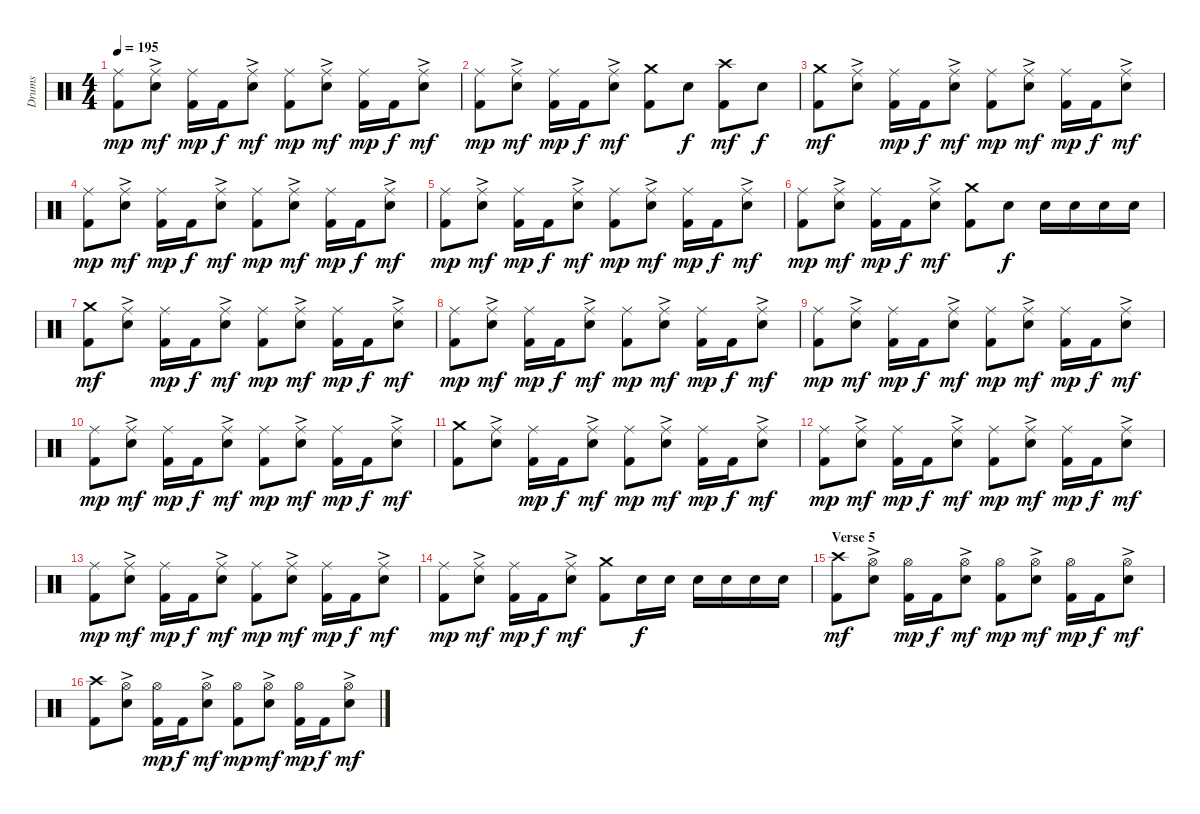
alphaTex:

\track ("Drums" "Drums") {instrument percussion}
\staff {score}
\articulation defaults
\ts (4 4)
\tempo 195
\clef neutral
\ks c
("Ride (middle)" "Kick (hit) 2").8{dy mp} ("Ride (middle)"{ac} "Electric Snare (hit)").8{dy mf} ("Ride (middle)" "Kick (hit) 2").16{dy mp} "Kick (hit) 2".16{dy f} ("Ride (middle)"{ac} "Electric Snare (hit)").8{dy mf} ("Ride (middle)" "Kick (hit) 2").8{dy mp} ("Ride (middle)"{ac} "Electric Snare (hit)").8{dy mf} ("Ride (middle)" "Kick (hit) 2").16{dy mp} "Kick (hit) 2".16{dy f} ("Ride (middle)"{ac} "Electric Snare (hit)").8{dy mf} |
("Ride (middle)" "Kick (hit) 2").8{dy mp} ("Ride (middle)"{ac} "Electric Snare (hit)").8{dy mf} ("Ride (middle)" "Kick (hit) 2").16{dy mp} "Kick (hit) 2".16{dy f} ("Ride (middle)"{ac} "Electric Snare (hit)").8{dy mf} ("Crash medium (hit)" "Kick (hit) 2").8 "Electric Snare (hit)".8{dy f} ("Crash high (hit)" "Kick (hit) 2").8{dy mf} "Electric Snare (hit)".8{dy f} |
("Crash medium (hit)" "Kick (hit) 2").8{dy mf} ("Ride (middle)"{ac} "Electric Snare (hit)").8 ("Ride (middle)" "Kick (hit) 2").16{dy mp} "Kick (hit) 2".16{dy f} ("Ride (middle)"{ac} "Electric Snare (hit)").8{dy mf} ("Ride (middle)" "Kick (hit) 2").8{dy mp} ("Ride (middle)"{ac} "Electric Snare (hit)").8{dy mf} ("Ride (middle)" "Kick (hit) 2").16{dy mp} "Kick (hit) 2".16{dy f} ("Ride (middle)"{ac} "Electric Snare (hit)").8{dy mf} |
("Ride (middle)" "Kick (hit) 2").8{dy mp} ("Ride (middle)"{ac} "Electric Snare (hit)").8{dy mf} ("Ride (middle)" "Kick (hit) 2").16{dy mp} "Kick (hit) 2".16{dy f} ("Ride (middle)"{ac} "Electric Snare (hit)").8{dy mf} ("Ride (middle)" "Kick (hit) 2").8{dy mp} ("Ride (middle)"{ac} "Electric Snare (hit)").8{dy mf} ("Ride (middle)" "Kick (hit) 2").16{dy mp} "Kick (hit) 2".16{dy f} ("Ride (middle)"{ac} "Electric Snare (hit)").8{dy mf} |
("Ride (middle)" "Kick (hit) 2").8{dy mp} ("Ride (middle)"{ac} "Electric Snare (hit)").8{dy mf} ("Ride (middle)" "Kick (hit) 2").16{dy mp} "Kick (hit) 2".16{dy f} ("Ride (middle)"{ac} "Electric Snare (hit)").8{dy mf} ("Ride (middle)" "Kick (hit) 2").8{dy mp} ("Ride (middle)"{ac} "Electric Snare (hit)").8{dy mf} ("Ride (middle)" "Kick (hit) 2").16{dy mp} "Kick (hit) 2".16{dy f} ("Ride (middle)"{ac} "Electric Snare (hit)").8{dy mf} |
("Ride (middle)" "Kick (hit) 2").8{dy mp} ("Ride (middle)"{ac} "Electric Snare (hit)").8{dy mf} ("Ride (middle)" "Kick (hit) 2").16{dy mp} "Kick (hit) 2".16{dy f} ("Ride (middle)"{ac} "Electric Snare (hit)").8{dy mf} ("Crash medium (hit)" "Kick (hit) 2").8 "Electric Snare (hit)".8{dy f} "Electric Snare (hit)".16 "Electric Snare (hit)".16 "Electric Snare (hit)".16 "Electric Snare (hit)".16 |
("Crash medium (hit)" "Kick (hit) 2").8{dy mf} ("Ride (middle)"{ac} "Electric Snare (hit)").8 ("Ride (middle)" "Kick (hit) 2").16{dy mp} "Kick (hit) 2".16{dy f} ("Ride (middle)"{ac} "Electric Snare (hit)").8{dy mf} ("Ride (middle)" "Kick (hit) 2").8{dy mp} ("Ride (middle)"{ac} "Electric Snare (hit)").8{dy mf} ("Ride (middle)" "Kick (hit) 2").16{dy mp} "Kick (hit) 2".16{dy f} ("Ride (middle)"{ac} "Electric Snare (hit)").8{dy mf} |
("Ride (middle)" "Kick (hit) 2").8{dy mp} ("Ride (middle)"{ac} "Electric Snare (hit)").8{dy mf} ("Ride (middle)" "Kick (hit) 2").16{dy mp} "Kick (hit) 2".16{dy f} ("Ride (middle)"{ac} "Electric Snare (hit)").8{dy mf} ("Ride (middle)" "Kick (hit) 2").8{dy mp} ("Ride (middle)"{ac} "Electric Snare (hit)").8{dy mf} ("Ride (middle)" "Kick (hit) 2").16{dy mp} "Kick (hit) 2".16{dy f} ("Ride (middle)"{ac} "Electric Snare (hit)").8{dy mf} |
("Ride (middle)" "Kick (hit) 2").8{dy mp} ("Ride (middle)"{ac} "Electric Snare (hit)").8{dy mf} ("Ride (middle)" "Kick (hit) 2").16{dy mp} "Kick (hit) 2".16{dy f} ("Ride (middle)"{ac} "Electric Snare (hit)").8{dy mf} ("Ride (middle)" "Kick (hit) 2").8{dy mp} ("Ride (middle)"{ac} "Electric Snare (hit)").8{dy mf} ("Ride (middle)" "Kick (hit) 2").16{dy mp} "Kick (hit) 2".16{dy f} ("Ride (middle)"{ac} "Electric Snare (hit)").8{dy mf} |
("Ride (middle)" "Kick (hit) 2").8{dy mp} ("Ride (middle)"{ac} "Electric Snare (hit)").8{dy mf} ("Ride (middle)" "Kick (hit) 2").16{dy mp} "Kick (hit) 2".16{dy f} ("Ride (middle)"{ac} "Electric Snare (hit)").8{dy mf} ("Ride (middle)" "Kick (hit) 2").8{dy mp} ("Ride (middle)"{ac} "Electric Snare (hit)").8{dy mf} ("Ride (middle)" "Kick (hit) 2").16{dy mp} "Kick (hit) 2".16{dy f} ("Ride (middle)"{ac} "Electric Snare (hit)").8{dy mf} |
("Crash medium (hit)" "Kick (hit) 2").8 ("Ride (middle)"{ac} "Electric Snare (hit)").8 ("Ride (middle)" "Kick (hit) 2").16{dy mp} "Kick (hit) 2".16{dy f} ("Ride (middle)"{ac} "Electric Snare (hit)").8{dy mf} ("Ride (middle)" "Kick (hit) 2").8{dy mp} ("Ride (middle)"{ac} "Electric Snare (hit)").8{dy mf} ("Ride (middle)" "Kick (hit) 2").16{dy mp} "Kick (hit) 2".16{dy f} ("Ride (middle)"{ac} "Electric Snare (hit)").8{dy mf} |
("Ride (middle)" "Kick (hit) 2").8{dy mp} ("Ride (middle)"{ac} "Electric Snare (hit)").8{dy mf} ("Ride (middle)" "Kick (hit) 2").16{dy mp} "Kick (hit) 2".16{dy f} ("Ride (middle)"{ac} "Electric Snare (hit)").8{dy mf} ("Ride (middle)" "Kick (hit) 2").8{dy mp} ("Ride (middle)"{ac} "Electric Snare (hit)").8{dy mf} ("Ride (middle)" "Kick (hit) 2").16{dy mp} "Kick (hit) 2".16{dy f} ("Ride (middle)"{ac} "Electric Snare (hit)").8{dy mf} |
("Ride (middle)" "Kick (hit) 2").8{dy mp} ("Ride (middle)"{ac} "Electric Snare (hit)").8{dy mf} ("Ride (middle)" "Kick (hit) 2").16{dy mp} "Kick (hit) 2".16{dy f} ("Ride (middle)"{ac} "Electric Snare (hit)").8{dy mf} ("Ride (middle)" "Kick (hit) 2").8{dy mp} ("Ride (middle)"{ac} "Electric Snare (hit)").8{dy mf} ("Ride (middle)" "Kick (hit) 2").16{dy mp} "Kick (hit) 2".16{dy f} ("Ride (middle)"{ac} "Electric Snare (hit)").8{dy mf} |
("Ride (middle)" "Kick (hit) 2").8{dy mp} ("Ride (middle)"{ac} "Electric Snare (hit)").8{dy mf} ("Ride (middle)" "Kick (hit) 2").16{dy mp} "Kick (hit) 2".16{dy f} ("Ride (middle)"{ac} "Electric Snare (hit)").8{dy mf} ("Crash medium (hit)" "Kick (hit) 2").8 "Electric Snare (hit)".16{dy f} "Electric Snare (hit)".16 "Electric Snare (hit)".16 "Electric Snare (hit)".16 "Electric Snare (hit)".16 "Electric Snare (hit)".16 |
\section ("" "Verse 5")
("Crash high (hit)" "Kick (hit) 2").8{dy mf} ("Hi-Hat (open)"{ac} "Electric Snare (hit)").8 ("Hi-Hat (open)" "Kick (hit) 2").16{dy mp} "Kick (hit) 2".16{dy f} ("Hi-Hat (open)"{ac} "Electric Snare (hit)").8{dy mf} ("Hi-Hat (open)" "Kick (hit) 2").8{dy mp} ("Hi-Hat (open)"{ac} "Electric Snare (hit)").8{dy mf} ("Hi-Hat (open)" "Kick (hit) 2").16{dy mp} "Kick (hit) 2".16{dy f} ("Hi-Hat (open)"{ac} "Electric Snare (hit)").8{dy mf} |
("Crash high (hit)" "Kick (hit) 2").8 ("Hi-Hat (open)"{ac} "Electric Snare (hit)").8 ("Hi-Hat (open)" "Kick (hit) 2").16{dy mp} "Kick (hit) 2".16{dy f} ("Hi-Hat (open)"{ac} "Electric Snare (hit)").8{dy mf} ("Hi-Hat (open)" "Kick (hit) 2").8{dy mp} ("Hi-Hat (open)"{ac} "Electric Snare (hit)").8{dy mf} ("Hi-Hat (open)" "Kick (hit) 2").16{dy mp} "Kick (hit) 2".16{dy f} ("Hi-Hat (open)"{ac} "Electric Snare (hit)").8{dy mf}
